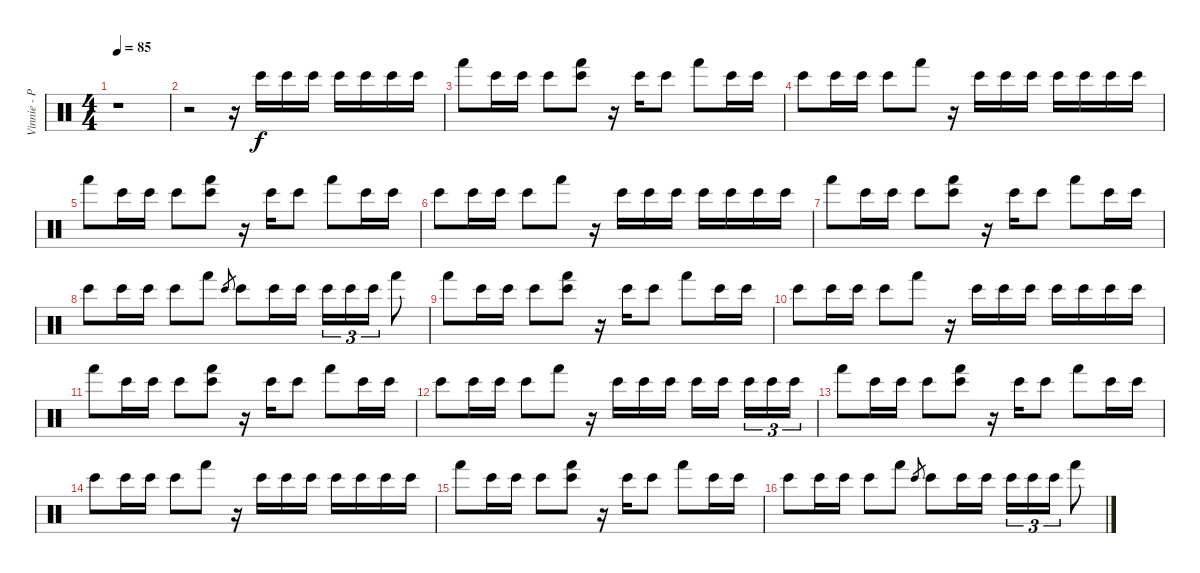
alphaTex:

\track ("Vinnie - Percusion" "Vinnie - P") {instrument percussion}
\staff {score}
\articulation defaults
\ts (4 4)
\tempo 85
\clef neutral
\ks c
r.1{dy f} |
r.2 r.16 "Bongo High (hit)".16 "Bongo High (hit)".16 "Bongo High (hit)".16 "Bongo High (hit)".16 "Bongo High (hit)".16 "Bongo High (hit)".16 "Bongo High (hit)".16 |
"Hand (hit)".8 "Bongo High (hit)".16 "Bongo High (hit)".16 "Bongo High (hit)".8 ("Bongo High (hit)" "Hand (hit)").8 r.16 "Bongo High (hit)".16 "Bongo High (hit)".8 "Hand (hit)".8 "Bongo High (hit)".16 "Bongo High (hit)".16 |
"Bongo High (hit)".8 "Bongo High (hit)".16 "Bongo High (hit)".16 "Bongo High (hit)".8 "Hand (hit)".8 r.16 "Bongo High (hit)".16 "Bongo High (hit)".16 "Bongo High (hit)".16 "Bongo High (hit)".16 "Bongo High (hit)".16 "Bongo High (hit)".16 "Bongo High (hit)".16 |
"Hand (hit)".8 "Bongo High (hit)".16 "Bongo High (hit)".16 "Bongo High (hit)".8 ("Bongo High (hit)" "Hand (hit)").8 r.16 "Bongo High (hit)".16 "Bongo High (hit)".8 "Hand (hit)".8 "Bongo High (hit)".16 "Bongo High (hit)".16 |
"Bongo High (hit)".8 "Bongo High (hit)".16 "Bongo High (hit)".16 "Bongo High (hit)".8 "Hand (hit)".8 r.16 "Bongo High (hit)".16 "Bongo High (hit)".16 "Bongo High (hit)".16 "Bongo High (hit)".16 "Bongo High (hit)".16 "Bongo High (hit)".16 "Bongo High (hit)".16 |
"Hand (hit)".8 "Bongo High (hit)".16 "Bongo High (hit)".16 "Bongo High (hit)".8 ("Bongo High (hit)" "Hand (hit)").8 r.16 "Bongo High (hit)".16 "Bongo High (hit)".8 "Hand (hit)".8 "Bongo High (hit)".16 "Bongo High (hit)".16 |
"Bongo High (hit)".8 "Bongo High (hit)".16 "Bongo High (hit)".16 "Bongo High (hit)".8 "Hand (hit)".8 "Bongo High (hit)".8{gr} "Bongo High (hit)".8 "Bongo High (hit)".16 "Bongo High (hit)".16 "Bongo High (hit)".16{tu (3 2)} "Bongo High (hit)".16{tu (3 2)} "Bongo High (hit)".16{tu (3 2)} "Hand (hit)".8 |
"Hand (hit)".8 "Bongo High (hit)".16 "Bongo High (hit)".16 "Bongo High (hit)".8 ("Bongo High (hit)" "Hand (hit)").8 r.16 "Bongo High (hit)".16 "Bongo High (hit)".8 "Hand (hit)".8 "Bongo High (hit)".16 "Bongo High (hit)".16 |
"Bongo High (hit)".8 "Bongo High (hit)".16 "Bongo High (hit)".16 "Bongo High (hit)".8 "Hand (hit)".8 r.16 "Bongo High (hit)".16 "Bongo High (hit)".16 "Bongo High (hit)".16 "Bongo High (hit)".16 "Bongo High (hit)".16 "Bongo High (hit)".16 "Bongo High (hit)".16 |
"Hand (hit)".8 "Bongo High (hit)".16 "Bongo High (hit)".16 "Bongo High (hit)".8 ("Bongo High (hit)" "Hand (hit)").8 r.16 "Bongo High (hit)".16 "Bongo High (hit)".8 "Hand (hit)".8 "Bongo High (hit)".16 "Bongo High (hit)".16 |
"Bongo High (hit)".8 "Bongo High (hit)".16 "Bongo High (hit)".16 "Bongo High (hit)".8 "Hand (hit)".8 r.16 "Bongo High (hit)".16 "Bongo High (hit)".16 "Bongo High (hit)".16 "Bongo High (hit)".16 "Bongo High (hit)".16 "Bongo High (hit)".16{tu (3 2)} "Bongo High (hit)".16{tu (3 2)} "Bongo High (hit)".16{tu (3 2)} |
"Hand (hit)".8 "Bongo High (hit)".16 "Bongo High (hit)".16 "Bongo High (hit)".8 ("Bongo High (hit)" "Hand (hit)").8 r.16 "Bongo High (hit)".16 "Bongo High (hit)".8 "Hand (hit)".8 "Bongo High (hit)".16 "Bongo High (hit)".16 |
"Bongo High (hit)".8 "Bongo High (hit)".16 "Bongo High (hit)".16 "Bongo High (hit)".8 "Hand (hit)".8 r.16 "Bongo High (hit)".16 "Bongo High (hit)".16 "Bongo High (hit)".16 "Bongo High (hit)".16 "Bongo High (hit)".16 "Bongo High (hit)".16 "Bongo High (hit)".16 |
"Hand (hit)".8 "Bongo High (hit)".16 "Bongo High (hit)".16 "Bongo High (hit)".8 ("Bongo High (hit)" "Hand (hit)").8 r.16 "Bongo High (hit)".16 "Bongo High (hit)".8 "Hand (hit)".8 "Bongo High (hit)".16 "Bongo High (hit)".16 |
"Bongo High (hit)".8 "Bongo High (hit)".16 "Bongo High (hit)".16 "Bongo High (hit)".8 "Hand (hit)".8 "Bongo High (hit)".8{gr} "Bongo High (hit)".8 "Bongo High (hit)".16 "Bongo High (hit)".16 "Bongo High (hit)".16{tu (3 2)} "Bongo High (hit)".16{tu (3 2)} "Bongo High (hit)".16{tu (3 2)} "Hand (hit)".8
